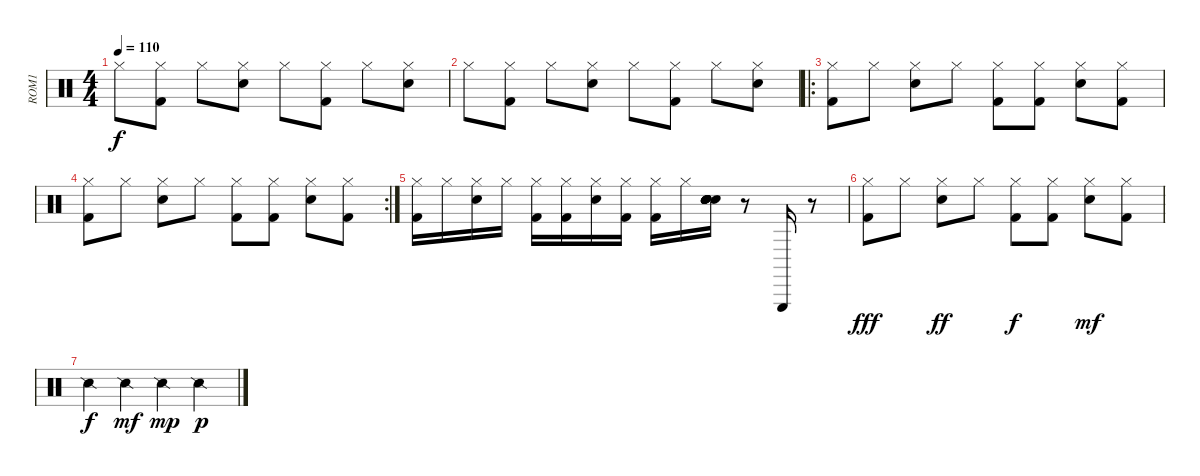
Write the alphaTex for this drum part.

\track ("ROM1" "ROM1") {instrument percussion}
\staff {score}
\articulation defaults
\ts (4 4)
\tempo 110
\clef neutral
\ks c "Hi-Hat (closed)".8{dy f}
("Kick (hit) 2" "Hi-Hat (closed)").8 "Hi-Hat (closed)".8 ("Electric Snare (hit)" "Hi-Hat (closed)").8 "Hi-Hat (closed)".8 ("Kick (hit) 2" "Hi-Hat (closed)").8 "Hi-Hat (closed)".8 ("Electric Snare (hit)" "Hi-Hat (closed)").8 |
"Hi-Hat (closed)".8 ("Kick (hit) 2" "Hi-Hat (closed)").8 "Hi-Hat (closed)".8 ("Electric Snare (hit)" "Hi-Hat (closed)").8 "Hi-Hat (closed)".8 ("Kick (hit) 2" "Hi-Hat (closed)").8 "Hi-Hat (closed)".8 ("Electric Snare (hit)" "Hi-Hat (closed)").8 |
\ro
("Kick (hit) 2" "Hi-Hat (closed)").8 "Hi-Hat (closed)".8 ("Electric Snare (hit)" "Hi-Hat (closed)").8 "Hi-Hat (closed)".8 ("Kick (hit) 2" "Hi-Hat (closed)").8 ("Kick (hit) 2" "Hi-Hat (closed)").8 ("Electric Snare (hit)" "Hi-Hat (closed)").8 ("Kick (hit) 2" "Hi-Hat (closed)").8 |
\rc 2
("Kick (hit) 2" "Hi-Hat (closed)").8 "Hi-Hat (closed)".8 ("Electric Snare (hit)" "Hi-Hat (closed)").8 "Hi-Hat (closed)".8 ("Kick (hit) 2" "Hi-Hat (closed)").8 ("Kick (hit) 2" "Hi-Hat (closed)").8 ("Electric Snare (hit)" "Hi-Hat (closed)").8 ("Kick (hit) 2" "Hi-Hat (closed)").8 |
("Kick (hit) 2" "Hi-Hat (closed)").16 "Hi-Hat (closed)".16 ("Electric Snare (hit)" "Hi-Hat (closed)").16 "Hi-Hat (closed)".16 ("Kick (hit) 2" "Hi-Hat (closed)").16 ("Kick (hit) 2" "Hi-Hat (closed)").16 ("Electric Snare (hit)" "Hi-Hat (closed)").16 ("Kick (hit) 2" "Hi-Hat (closed)").16 ("Kick (hit) 2" "Hi-Hat (closed)").16 "Hi-Hat (closed)".16 ("Electric Snare (hit)" "Electric Snare (hit)" "Electric Snare (hit)" "Electric Snare (hit)" "Electric Snare (hit)" "Electric Snare (hit)").16 r.8 "Triangle (hit)".16 r.8 |
("Kick (hit) 2" "Hi-Hat (closed)").8{dy fff} "Hi-Hat (closed)".8 ("Electric Snare (hit)" "Hi-Hat (closed)").8{dy ff} "Hi-Hat (closed)".8 ("Kick (hit) 2" "Hi-Hat (closed)").8{dy f} ("Kick (hit) 2" "Hi-Hat (closed)").8 ("Electric Snare (hit)" "Hi-Hat (closed)").8{dy mf} ("Kick (hit) 2" "Hi-Hat (closed)").8 |
"Snare (side stick) 2".4{dy f} "Snare (side stick) 2".4{dy mf} "Snare (side stick) 2".4{dy mp} "Snare (side stick) 2".4{dy p}
